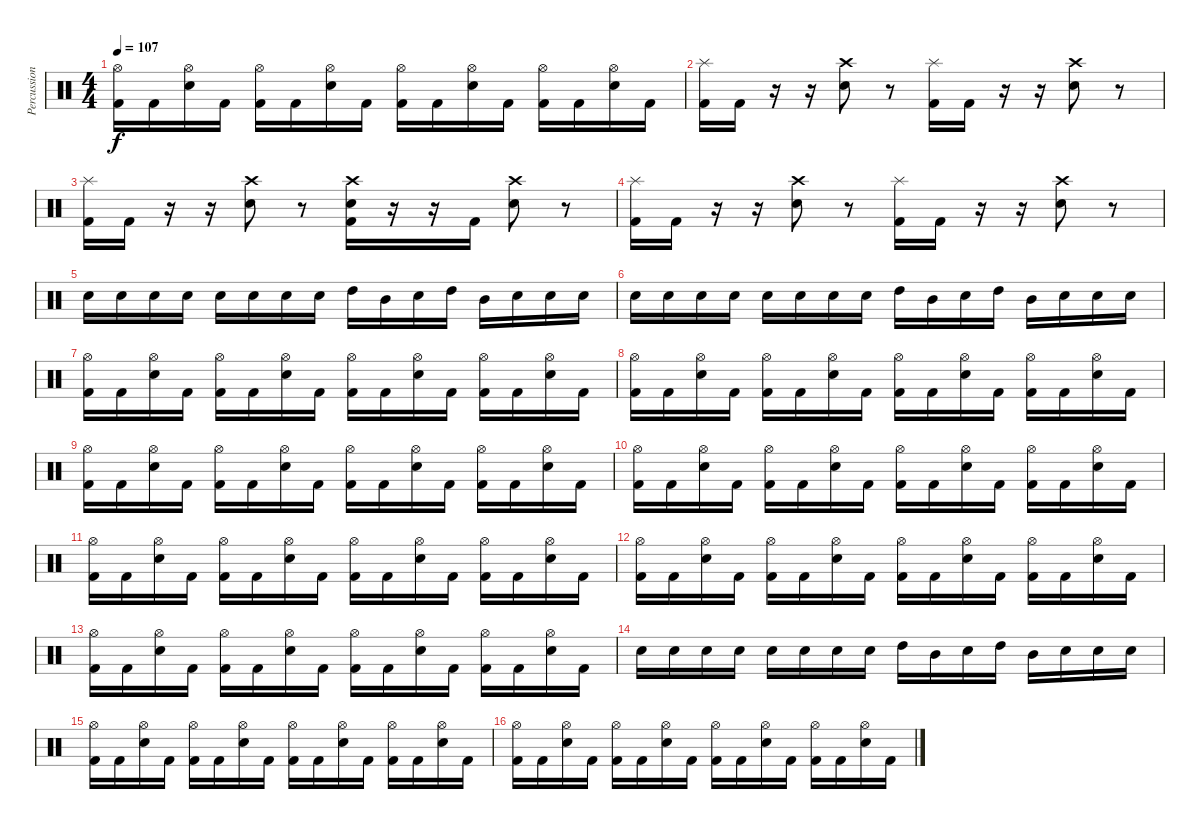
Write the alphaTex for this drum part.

\track ("Percussion" "Percussion") {instrument percussion}
\staff {score}
\articulation defaults
\ts (4 4)
\tempo 107
\clef neutral
\ks c
("Hi-Hat (open)" "Kick (hit) 2").16{dy f} "Kick (hit) 2".16 ("Hi-Hat (open)" "Electric Snare (hit)").16 "Kick (hit) 2".16 ("Hi-Hat (open)" "Kick (hit) 2").16 "Kick (hit) 2".16 ("Hi-Hat (open)" "Electric Snare (hit)").16 "Kick (hit) 2".16 ("Hi-Hat (open)" "Kick (hit) 2").16 "Kick (hit) 2".16 ("Hi-Hat (open)" "Electric Snare (hit)").16 "Kick (hit) 2".16 ("Hi-Hat (open)" "Kick (hit) 2").16 "Kick (hit) 2".16 ("Hi-Hat (open)" "Electric Snare (hit)").16 "Kick (hit) 2".16 |
("Splash (hit)" "Kick (hit) 2").16 "Kick (hit) 2".16 r.16 r.16 ("Crash high (hit)" "Electric Snare (hit)").8 r.8 ("Splash (hit)" "Kick (hit) 2").16 "Kick (hit) 2".16 r.16 r.16 ("Crash high (hit)" "Electric Snare (hit)").8 r.8 |
("Splash (hit)" "Kick (hit) 2").16 "Kick (hit) 2".16 r.16 r.16 ("Crash high (hit)" "Electric Snare (hit)").8 r.8 ("Crash high (hit)" "Electric Snare (hit)" "Kick (hit) 2").16 r.16 r.16 "Kick (hit) 2".16 ("Crash high (hit)" "Electric Snare (hit)").8 r.8 |
("Splash (hit)" "Kick (hit) 2").16 "Kick (hit) 2".16 r.16 r.16 ("Crash high (hit)" "Electric Snare (hit)").8 r.8 ("Splash (hit)" "Kick (hit) 2").16 "Kick (hit) 2".16 r.16 r.16 ("Crash high (hit)" "Electric Snare (hit)").8 r.8 |
"Electric Snare (hit)".16 "Electric Snare (hit)".16 "Electric Snare (hit)".16 "Electric Snare (hit)".16 "Electric Snare (hit)".16 "Electric Snare (hit)".16 "Electric Snare (hit)".16 "Electric Snare (hit)".16 "High Tom (hit)".16 "Mid Tom (hit)".16 "Electric Snare (hit)".16 "High Tom (hit)".16 "Mid Tom (hit)".16 "Electric Snare (hit)".16 "Electric Snare (hit)".16 "Electric Snare (hit)".16 |
"Electric Snare (hit)".16 "Electric Snare (hit)".16 "Electric Snare (hit)".16 "Electric Snare (hit)".16 "Electric Snare (hit)".16 "Electric Snare (hit)".16 "Electric Snare (hit)".16 "Electric Snare (hit)".16 "High Tom (hit)".16 "Mid Tom (hit)".16 "Electric Snare (hit)".16 "High Tom (hit)".16 "Mid Tom (hit)".16 "Electric Snare (hit)".16 "Electric Snare (hit)".16 "Electric Snare (hit)".16 |
("Hi-Hat (open)" "Kick (hit) 2").16 "Kick (hit) 2".16 ("Hi-Hat (open)" "Electric Snare (hit)").16 "Kick (hit) 2".16 ("Hi-Hat (open)" "Kick (hit) 2").16 "Kick (hit) 2".16 ("Hi-Hat (open)" "Electric Snare (hit)").16 "Kick (hit) 2".16 ("Hi-Hat (open)" "Kick (hit) 2").16 "Kick (hit) 2".16 ("Hi-Hat (open)" "Electric Snare (hit)").16 "Kick (hit) 2".16 ("Hi-Hat (open)" "Kick (hit) 2").16 "Kick (hit) 2".16 ("Hi-Hat (open)" "Electric Snare (hit)").16 "Kick (hit) 2".16 |
("Hi-Hat (open)" "Kick (hit) 2").16 "Kick (hit) 2".16 ("Hi-Hat (open)" "Electric Snare (hit)").16 "Kick (hit) 2".16 ("Hi-Hat (open)" "Kick (hit) 2").16 "Kick (hit) 2".16 ("Hi-Hat (open)" "Electric Snare (hit)").16 "Kick (hit) 2".16 ("Hi-Hat (open)" "Kick (hit) 2").16 "Kick (hit) 2".16 ("Hi-Hat (open)" "Electric Snare (hit)").16 "Kick (hit) 2".16 ("Hi-Hat (open)" "Kick (hit) 2").16 "Kick (hit) 2".16 ("Hi-Hat (open)" "Electric Snare (hit)").16 "Kick (hit) 2".16 |
("Hi-Hat (open)" "Kick (hit) 2").16 "Kick (hit) 2".16 ("Hi-Hat (open)" "Electric Snare (hit)").16 "Kick (hit) 2".16 ("Hi-Hat (open)" "Kick (hit) 2").16 "Kick (hit) 2".16 ("Hi-Hat (open)" "Electric Snare (hit)").16 "Kick (hit) 2".16 ("Hi-Hat (open)" "Kick (hit) 2").16 "Kick (hit) 2".16 ("Hi-Hat (open)" "Electric Snare (hit)").16 "Kick (hit) 2".16 ("Hi-Hat (open)" "Kick (hit) 2").16 "Kick (hit) 2".16 ("Hi-Hat (open)" "Electric Snare (hit)").16 "Kick (hit) 2".16 |
("Hi-Hat (open)" "Kick (hit) 2").16 "Kick (hit) 2".16 ("Hi-Hat (open)" "Electric Snare (hit)").16 "Kick (hit) 2".16 ("Hi-Hat (open)" "Kick (hit) 2").16 "Kick (hit) 2".16 ("Hi-Hat (open)" "Electric Snare (hit)").16 "Kick (hit) 2".16 ("Hi-Hat (open)" "Kick (hit) 2").16 "Kick (hit) 2".16 ("Hi-Hat (open)" "Electric Snare (hit)").16 "Kick (hit) 2".16 ("Hi-Hat (open)" "Kick (hit) 2").16 "Kick (hit) 2".16 ("Hi-Hat (open)" "Electric Snare (hit)").16 "Kick (hit) 2".16 |
("Hi-Hat (open)" "Kick (hit) 2").16 "Kick (hit) 2".16 ("Hi-Hat (open)" "Electric Snare (hit)").16 "Kick (hit) 2".16 ("Hi-Hat (open)" "Kick (hit) 2").16 "Kick (hit) 2".16 ("Hi-Hat (open)" "Electric Snare (hit)").16 "Kick (hit) 2".16 ("Hi-Hat (open)" "Kick (hit) 2").16 "Kick (hit) 2".16 ("Hi-Hat (open)" "Electric Snare (hit)").16 "Kick (hit) 2".16 ("Hi-Hat (open)" "Kick (hit) 2").16 "Kick (hit) 2".16 ("Hi-Hat (open)" "Electric Snare (hit)").16 "Kick (hit) 2".16 |
("Hi-Hat (open)" "Kick (hit) 2").16 "Kick (hit) 2".16 ("Hi-Hat (open)" "Electric Snare (hit)").16 "Kick (hit) 2".16 ("Hi-Hat (open)" "Kick (hit) 2").16 "Kick (hit) 2".16 ("Hi-Hat (open)" "Electric Snare (hit)").16 "Kick (hit) 2".16 ("Hi-Hat (open)" "Kick (hit) 2").16 "Kick (hit) 2".16 ("Hi-Hat (open)" "Electric Snare (hit)").16 "Kick (hit) 2".16 ("Hi-Hat (open)" "Kick (hit) 2").16 "Kick (hit) 2".16 ("Hi-Hat (open)" "Electric Snare (hit)").16 "Kick (hit) 2".16 |
("Hi-Hat (open)" "Kick (hit) 2").16 "Kick (hit) 2".16 ("Hi-Hat (open)" "Electric Snare (hit)").16 "Kick (hit) 2".16 ("Hi-Hat (open)" "Kick (hit) 2").16 "Kick (hit) 2".16 ("Hi-Hat (open)" "Electric Snare (hit)").16 "Kick (hit) 2".16 ("Hi-Hat (open)" "Kick (hit) 2").16 "Kick (hit) 2".16 ("Hi-Hat (open)" "Electric Snare (hit)").16 "Kick (hit) 2".16 ("Hi-Hat (open)" "Kick (hit) 2").16 "Kick (hit) 2".16 ("Hi-Hat (open)" "Electric Snare (hit)").16 "Kick (hit) 2".16 |
"Electric Snare (hit)".16 "Electric Snare (hit)".16 "Electric Snare (hit)".16 "Electric Snare (hit)".16 "Electric Snare (hit)".16 "Electric Snare (hit)".16 "Electric Snare (hit)".16 "Electric Snare (hit)".16 "High Tom (hit)".16 "Mid Tom (hit)".16 "Electric Snare (hit)".16 "High Tom (hit)".16 "Mid Tom (hit)".16 "Electric Snare (hit)".16 "Electric Snare (hit)".16 "Electric Snare (hit)".16 |
("Hi-Hat (open)" "Kick (hit) 2").16 "Kick (hit) 2".16 ("Hi-Hat (open)" "Electric Snare (hit)").16 "Kick (hit) 2".16 ("Hi-Hat (open)" "Kick (hit) 2").16 "Kick (hit) 2".16 ("Hi-Hat (open)" "Electric Snare (hit)").16 "Kick (hit) 2".16 ("Hi-Hat (open)" "Kick (hit) 2").16 "Kick (hit) 2".16 ("Hi-Hat (open)" "Electric Snare (hit)").16 "Kick (hit) 2".16 ("Hi-Hat (open)" "Kick (hit) 2").16 "Kick (hit) 2".16 ("Hi-Hat (open)" "Electric Snare (hit)").16 "Kick (hit) 2".16 |
("Hi-Hat (open)" "Kick (hit) 2").16 "Kick (hit) 2".16 ("Hi-Hat (open)" "Electric Snare (hit)").16 "Kick (hit) 2".16 ("Hi-Hat (open)" "Kick (hit) 2").16 "Kick (hit) 2".16 ("Hi-Hat (open)" "Electric Snare (hit)").16 "Kick (hit) 2".16 ("Hi-Hat (open)" "Kick (hit) 2").16 "Kick (hit) 2".16 ("Hi-Hat (open)" "Electric Snare (hit)").16 "Kick (hit) 2".16 ("Hi-Hat (open)" "Kick (hit) 2").16 "Kick (hit) 2".16 ("Hi-Hat (open)" "Electric Snare (hit)").16 "Kick (hit) 2".16
